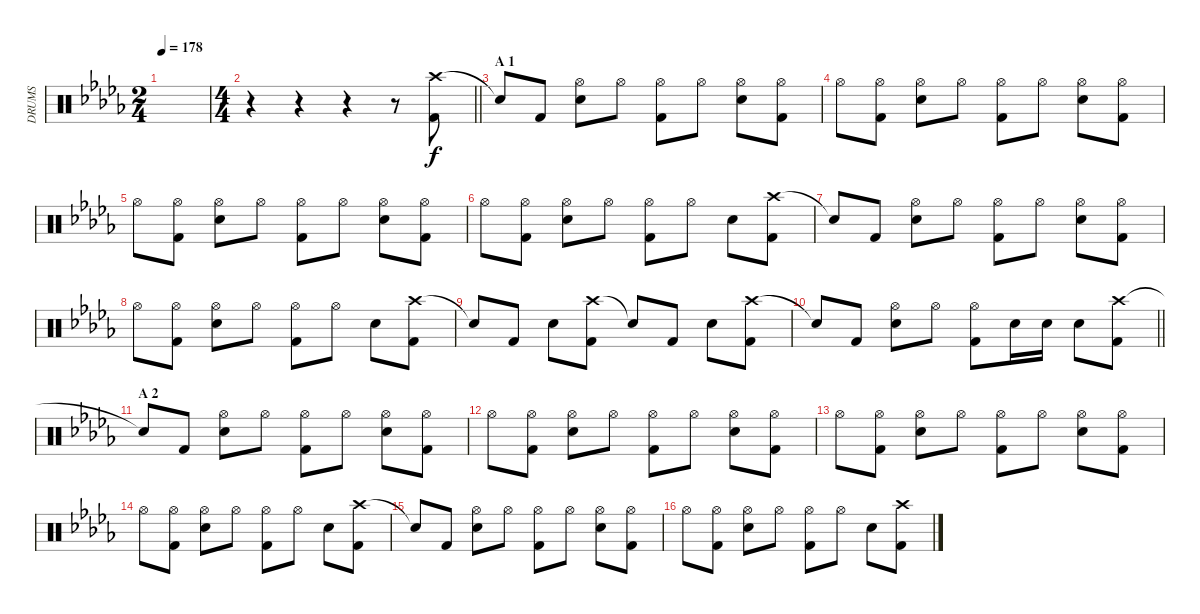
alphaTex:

\track ("DRUMS" "DRUMS") {instrument percussion}
\staff {score}
\articulation defaults
\ts (2 4)
\tempo 178
\clef neutral
\ks db
|
\ts (4 4)
\barLineRight lightlight
r.4 r.4 r.4 r.8 ("Crash high (hit)" "Kick (hit) 2").8 |
\section ("" "A 1")
"Snare (hit)"{t}.8 "Kick (hit) 2".8 ("Hi-Hat (open)" "Snare (hit) 2").8 "Hi-Hat (open)".8 ("Hi-Hat (open)" "Kick (hit) 2").8 "Hi-Hat (open)".8 ("Hi-Hat (open)" "Snare (hit) 2").8 ("Hi-Hat (open)" "Kick (hit) 2").8 |
"Hi-Hat (open)".8 ("Hi-Hat (open)" "Kick (hit) 2").8 ("Hi-Hat (open)" "Snare (hit) 2").8 "Hi-Hat (open)".8 ("Hi-Hat (open)" "Kick (hit) 2").8 "Hi-Hat (open)".8 ("Hi-Hat (open)" "Snare (hit) 2").8 ("Hi-Hat (open)" "Kick (hit) 2").8 |
"Hi-Hat (open)".8 ("Hi-Hat (open)" "Kick (hit) 2").8 ("Hi-Hat (open)" "Snare (hit) 2").8 "Hi-Hat (open)".8 ("Hi-Hat (open)" "Kick (hit) 2").8 "Hi-Hat (open)".8 ("Hi-Hat (open)" "Snare (hit) 2").8 ("Hi-Hat (open)" "Kick (hit) 2").8 |
"Hi-Hat (open)".8 ("Hi-Hat (open)" "Kick (hit) 2").8 ("Hi-Hat (open)" "Snare (hit) 2").8 "Hi-Hat (open)".8 ("Hi-Hat (open)" "Kick (hit) 2").8 "Hi-Hat (open)".8 "Snare (hit) 2".8 ("Crash high (hit)" "Kick (hit) 2").8 |
"Snare (hit)"{t}.8 "Kick (hit) 2".8 ("Hi-Hat (open)" "Snare (hit) 2").8 "Hi-Hat (open)".8 ("Hi-Hat (open)" "Kick (hit) 2").8 "Hi-Hat (open)".8 ("Hi-Hat (open)" "Snare (hit) 2").8 ("Hi-Hat (open)" "Kick (hit) 2").8 |
"Hi-Hat (open)".8 ("Hi-Hat (open)" "Kick (hit) 2").8 ("Hi-Hat (open)" "Snare (hit) 2").8 "Hi-Hat (open)".8 ("Hi-Hat (open)" "Kick (hit) 2").8 "Hi-Hat (open)".8 "Snare (hit) 2".8 ("Crash high (hit)" "Kick (hit) 2").8 |
"Snare (hit)"{t}.8 "Kick (hit) 2".8 "Snare (hit) 2".8 ("Crash high (hit)" "Kick (hit) 2").8 "Snare (hit)"{t}.8 "Kick (hit) 2".8 "Snare (hit) 2".8 ("Crash high (hit)" "Kick (hit) 2").8 |
\barLineRight lightlight "Snare (hit)"{t}.8 "Kick (hit) 2".8
("Hi-Hat (open)" "Snare (hit) 2").8 "Hi-Hat (open)".8 ("Hi-Hat (open)" "Kick (hit) 2").8 "Snare (hit) 2".16 "Snare (hit) 2".16 "Snare (hit) 2".8 ("Crash high (hit)" "Kick (hit) 2").8 |
\section ("" "A 2")
"Snare (hit)"{t}.8 "Kick (hit) 2".8 ("Hi-Hat (open)" "Snare (hit) 2").8 "Hi-Hat (open)".8 ("Hi-Hat (open)" "Kick (hit) 2").8 "Hi-Hat (open)".8 ("Hi-Hat (open)" "Snare (hit) 2").8 ("Hi-Hat (open)" "Kick (hit) 2").8 |
"Hi-Hat (open)".8 ("Hi-Hat (open)" "Kick (hit) 2").8 ("Hi-Hat (open)" "Snare (hit) 2").8 "Hi-Hat (open)".8 ("Hi-Hat (open)" "Kick (hit) 2").8 "Hi-Hat (open)".8 ("Hi-Hat (open)" "Snare (hit) 2").8 ("Hi-Hat (open)" "Kick (hit) 2").8 |
"Hi-Hat (open)".8 ("Hi-Hat (open)" "Kick (hit) 2").8 ("Hi-Hat (open)" "Snare (hit) 2").8 "Hi-Hat (open)".8 ("Hi-Hat (open)" "Kick (hit) 2").8 "Hi-Hat (open)".8 ("Hi-Hat (open)" "Snare (hit) 2").8 ("Hi-Hat (open)" "Kick (hit) 2").8 |
"Hi-Hat (open)".8 ("Hi-Hat (open)" "Kick (hit) 2").8 ("Hi-Hat (open)" "Snare (hit) 2").8 "Hi-Hat (open)".8 ("Hi-Hat (open)" "Kick (hit) 2").8 "Hi-Hat (open)".8 "Snare (hit) 2".8 ("Crash high (hit)" "Kick (hit) 2").8 |
"Snare (hit)"{t}.8 "Kick (hit) 2".8 ("Hi-Hat (open)" "Snare (hit) 2").8 "Hi-Hat (open)".8 ("Hi-Hat (open)" "Kick (hit) 2").8 "Hi-Hat (open)".8 ("Hi-Hat (open)" "Snare (hit) 2").8 ("Hi-Hat (open)" "Kick (hit) 2").8 |
"Hi-Hat (open)".8 ("Hi-Hat (open)" "Kick (hit) 2").8 ("Hi-Hat (open)" "Snare (hit) 2").8 "Hi-Hat (open)".8 ("Hi-Hat (open)" "Kick (hit) 2").8 "Hi-Hat (open)".8 "Snare (hit) 2".8 ("Crash high (hit)" "Kick (hit) 2").8
